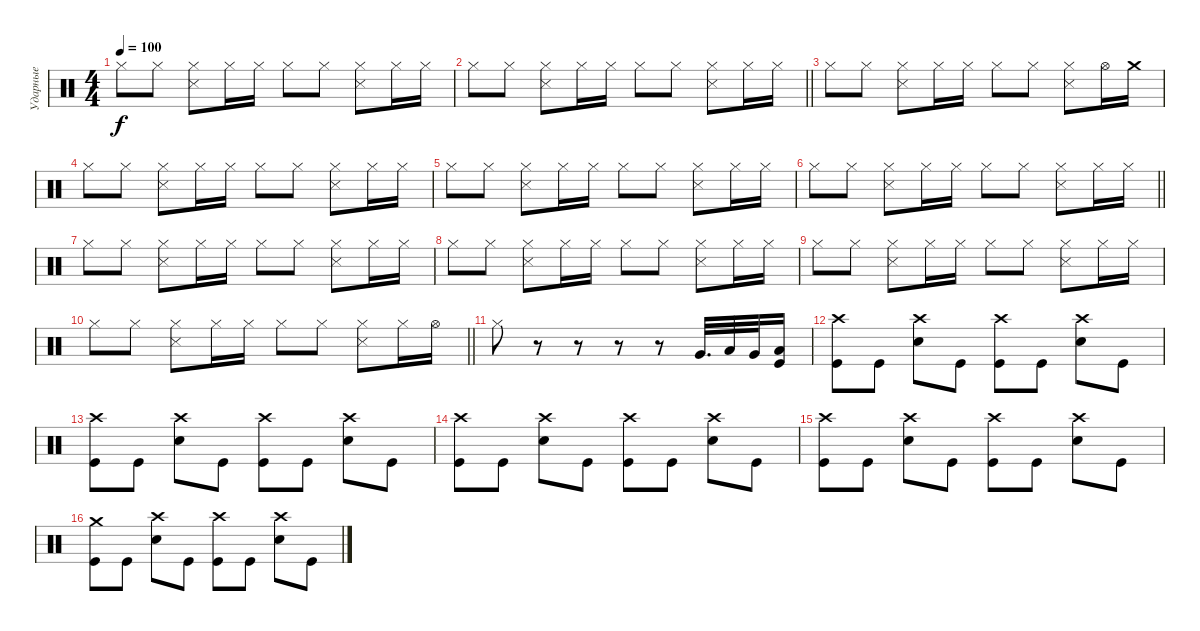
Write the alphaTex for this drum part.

\track ("Ударные" "Ударные") {instrument percussion}
\staff {score}
\articulation defaults
\ts (4 4)
\tempo 100
\clef neutral
\ks c "Hi-Hat (closed)".8{dy f} "Hi-Hat (closed)".8
("Hi-Hat (closed)" "Snare (side stick) 3").8 "Hi-Hat (closed)".16 "Hi-Hat (closed)".16 "Hi-Hat (closed)".8 "Hi-Hat (closed)".8 ("Hi-Hat (closed)" "Snare (side stick) 3").8 "Hi-Hat (closed)".16 "Hi-Hat (closed)".16 |
\barLineRight lightlight "Hi-Hat (closed)".8 "Hi-Hat (closed)".8
("Hi-Hat (closed)" "Snare (side stick) 3").8 "Hi-Hat (closed)".16 "Hi-Hat (closed)".16 "Hi-Hat (closed)".8 "Hi-Hat (closed)".8 ("Hi-Hat (closed)" "Snare (side stick) 3").8 "Hi-Hat (closed)".16 "Hi-Hat (closed)".16 |
"Hi-Hat (closed)".8 "Hi-Hat (closed)".8 ("Hi-Hat (closed)" "Snare (side stick) 3").8 "Hi-Hat (closed)".16 "Hi-Hat (closed)".16 "Hi-Hat (closed)".8 "Hi-Hat (closed)".8 ("Hi-Hat (closed)" "Snare (side stick) 3").8 "Hi-Hat (open)".16 "Crash medium (hit)".16 |
"Hi-Hat (closed)".8 "Hi-Hat (closed)".8 ("Hi-Hat (closed)" "Snare (side stick) 3").8 "Hi-Hat (closed)".16 "Hi-Hat (closed)".16 "Hi-Hat (closed)".8 "Hi-Hat (closed)".8 ("Hi-Hat (closed)" "Snare (side stick) 3").8 "Hi-Hat (closed)".16 "Hi-Hat (closed)".16 |
"Hi-Hat (closed)".8 "Hi-Hat (closed)".8 ("Hi-Hat (closed)" "Snare (side stick) 3").8 "Hi-Hat (closed)".16 "Hi-Hat (closed)".16 "Hi-Hat (closed)".8 "Hi-Hat (closed)".8 ("Hi-Hat (closed)" "Snare (side stick) 3").8 "Hi-Hat (closed)".16 "Hi-Hat (closed)".16 |
\barLineRight lightlight "Hi-Hat (closed)".8 "Hi-Hat (closed)".8
("Hi-Hat (closed)" "Snare (side stick) 3").8 "Hi-Hat (closed)".16 "Hi-Hat (closed)".16 "Hi-Hat (closed)".8 "Hi-Hat (closed)".8 ("Hi-Hat (closed)" "Snare (side stick) 3").8 "Hi-Hat (closed)".16 "Hi-Hat (closed)".16 |
"Hi-Hat (closed)".8 "Hi-Hat (closed)".8 ("Hi-Hat (closed)" "Snare (side stick) 3").8 "Hi-Hat (closed)".16 "Hi-Hat (closed)".16 "Hi-Hat (closed)".8 "Hi-Hat (closed)".8 ("Hi-Hat (closed)" "Snare (side stick) 3").8 "Hi-Hat (closed)".16 "Hi-Hat (closed)".16 |
"Hi-Hat (closed)".8 "Hi-Hat (closed)".8 ("Hi-Hat (closed)" "Snare (side stick) 3").8 "Hi-Hat (closed)".16 "Hi-Hat (closed)".16 "Hi-Hat (closed)".8 "Hi-Hat (closed)".8 ("Hi-Hat (closed)" "Snare (side stick) 3").8 "Hi-Hat (closed)".16 "Hi-Hat (closed)".16 |
"Hi-Hat (closed)".8 "Hi-Hat (closed)".8 ("Hi-Hat (closed)" "Snare (side stick) 3").8 "Hi-Hat (closed)".16 "Hi-Hat (closed)".16 "Hi-Hat (closed)".8 "Hi-Hat (closed)".8 ("Hi-Hat (closed)" "Snare (side stick) 3").8 "Hi-Hat (closed)".16 "Hi-Hat (closed)".16 |
\barLineRight lightlight "Hi-Hat (closed)".8 "Hi-Hat (closed)".8
("Hi-Hat (closed)" "Snare (side stick) 3").8 "Hi-Hat (closed)".16 "Hi-Hat (closed)".16 "Hi-Hat (closed)".8 "Hi-Hat (closed)".8 ("Hi-Hat (closed)" "Snare (side stick) 3").8 "Hi-Hat (closed)".16 "Hi-Hat (open)".16 |
"Hi-Hat (closed)".8 r.8 r.8 r.8 r.8 "Very Low Tom (hit)".32{d} "Low Tom (hit)".32 "Very Low Tom (hit)".32 ("Low Floor Tom (hit)" "Kick (hit)").16 |
("Crash high (hit)" "Kick (hit)").8 "Kick (hit)".8 ("Crash high (hit)" "Snare (hit) 2").8 "Kick (hit)".8 ("Crash high (hit)" "Kick (hit)").8 "Kick (hit)".8 ("Crash high (hit)" "Snare (hit) 2").8 "Kick (hit)".8 |
("Crash high (hit)" "Kick (hit)").8 "Kick (hit)".8 ("Crash high (hit)" "Snare (hit) 2").8 "Kick (hit)".8 ("Crash high (hit)" "Kick (hit)").8 "Kick (hit)".8 ("Crash high (hit)" "Snare (hit) 2").8 "Kick (hit)".8 |
("Crash high (hit)" "Kick (hit)").8 "Kick (hit)".8 ("Crash high (hit)" "Snare (hit) 2").8 "Kick (hit)".8 ("Crash high (hit)" "Kick (hit)").8 "Kick (hit)".8 ("Crash high (hit)" "Snare (hit) 2").8 "Kick (hit)".8 |
("Crash high (hit)" "Kick (hit)").8 "Kick (hit)".8 ("Crash high (hit)" "Snare (hit) 2").8 "Kick (hit)".8 ("Crash high (hit)" "Kick (hit)").8 "Kick (hit)".8 ("Crash high (hit)" "Snare (hit) 2").8 "Kick (hit)".8 |
("Crash medium (hit)" "Kick (hit)").8 "Kick (hit)".8 ("Crash high (hit)" "Snare (hit) 2").8 "Kick (hit)".8 ("Crash high (hit)" "Kick (hit)").8 "Kick (hit)".8 ("Crash high (hit)" "Snare (hit) 2").8 "Kick (hit)".8
